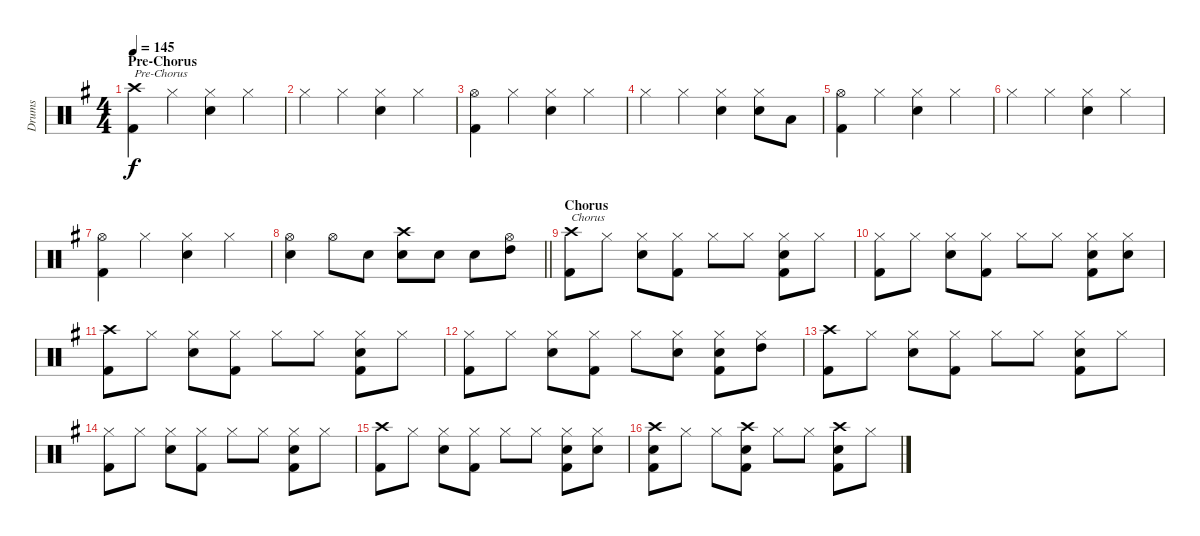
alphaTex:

\track ("Drums" "Drums") {instrument percussion}
\staff {score}
\articulation defaults
\ts (4 4)
\section ("" "Pre-Chorus")
\tempo 145
\clef neutral
\ks g
("Crash high (hit)" "Kick (hit) 2").4{txt "Pre-Chorus" dy f} "Hi-Hat (closed)".4 ("Hi-Hat (closed)" "Snare (hit) 2").4 "Hi-Hat (closed)".4 |
"Hi-Hat (closed)".4 "Hi-Hat (closed)".4 ("Hi-Hat (closed)" "Snare (hit) 2").4 "Hi-Hat (closed)".4 |
("Hi-Hat (open)" "Kick (hit) 2").4 "Hi-Hat (closed)".4 ("Hi-Hat (closed)" "Snare (hit) 2").4 "Hi-Hat (closed)".4 |
"Hi-Hat (closed)".4 "Hi-Hat (closed)".4 ("Hi-Hat (closed)" "Snare (hit) 2").4 ("Hi-Hat (closed)" "Snare (hit) 2").8 "Low Tom (hit)".8 |
("Hi-Hat (open)" "Kick (hit) 2").4 "Hi-Hat (closed)".4 ("Hi-Hat (closed)" "Snare (hit) 2").4 "Hi-Hat (closed)".4 |
"Hi-Hat (closed)".4 "Hi-Hat (closed)".4 ("Hi-Hat (closed)" "Snare (hit) 2").4 "Hi-Hat (closed)".4 |
("Hi-Hat (open)" "Kick (hit) 2").4 "Hi-Hat (closed)".4 ("Hi-Hat (closed)" "Snare (hit) 2").4 "Hi-Hat (closed)".4 |
\barLineRight lightlight
("Hi-Hat (open)" "Electric Snare (hit)").4 "Hi-Hat (open)".8 "Electric Snare (hit)".8 ("Crash high (hit)" "Electric Snare (hit)").8 "Snare (hit) 2".8 "Snare (hit) 2".8 ("Hi-Hat (open)" "High Tom (hit)").8 |
\section ("" "Chorus")
("Crash high (hit)" "Kick (hit) 2").8{txt "Chorus"} "Hi-Hat (closed)".8 ("Hi-Hat (closed)" "Electric Snare (hit)").8 ("Hi-Hat (closed)" "Kick (hit) 2").8 "Hi-Hat (closed)".8 "Hi-Hat (closed)".8 ("Hi-Hat (closed)" "Electric Snare (hit)" "Kick (hit) 2").8 "Hi-Hat (closed)".8 |
("Hi-Hat (closed)" "Kick (hit) 2").8 "Hi-Hat (closed)".8 ("Hi-Hat (closed)" "Electric Snare (hit)").8 ("Hi-Hat (closed)" "Kick (hit) 2").8 "Hi-Hat (closed)".8 "Hi-Hat (closed)".8 ("Hi-Hat (closed)" "Electric Snare (hit)" "Kick (hit) 2").8 ("Hi-Hat (closed)" "Electric Snare (hit)").8 |
("Crash high (hit)" "Kick (hit) 2").8 "Hi-Hat (closed)".8 ("Hi-Hat (closed)" "Electric Snare (hit)").8 ("Hi-Hat (closed)" "Kick (hit) 2").8 "Hi-Hat (closed)".8 "Hi-Hat (closed)".8 ("Hi-Hat (closed)" "Electric Snare (hit)" "Kick (hit) 2").8 "Hi-Hat (closed)".8 |
("Hi-Hat (closed)" "Kick (hit) 2").8 "Hi-Hat (closed)".8 ("Hi-Hat (closed)" "Electric Snare (hit)").8 ("Hi-Hat (closed)" "Kick (hit) 2").8 "Hi-Hat (closed)".8 ("Hi-Hat (closed)" "Electric Snare (hit)").8 ("Hi-Hat (closed)" "Electric Snare (hit)" "Kick (hit) 2").8 ("Hi-Hat (closed)" "High Tom (hit)").8 |
("Crash high (hit)" "Kick (hit) 2").8 "Hi-Hat (closed)".8 ("Hi-Hat (closed)" "Electric Snare (hit)").8 ("Hi-Hat (closed)" "Kick (hit) 2").8 "Hi-Hat (closed)".8 "Hi-Hat (closed)".8 ("Hi-Hat (closed)" "Electric Snare (hit)" "Kick (hit) 2").8 "Hi-Hat (closed)".8 |
("Hi-Hat (closed)" "Kick (hit) 2").8 "Hi-Hat (closed)".8 ("Hi-Hat (closed)" "Electric Snare (hit)").8 ("Hi-Hat (closed)" "Kick (hit) 2").8 "Hi-Hat (closed)".8 "Hi-Hat (closed)".8 ("Hi-Hat (closed)" "Electric Snare (hit)" "Kick (hit) 2").8 "Hi-Hat (closed)".8 |
("Crash high (hit)" "Kick (hit) 2").8 "Hi-Hat (closed)".8 ("Hi-Hat (closed)" "Electric Snare (hit)").8 ("Hi-Hat (closed)" "Kick (hit) 2").8 "Hi-Hat (closed)".8 "Hi-Hat (closed)".8 ("Hi-Hat (closed)" "Electric Snare (hit)" "Kick (hit) 2").8 ("Hi-Hat (closed)" "Electric Snare (hit)").8 |
("Crash high (hit)" "Electric Snare (hit)" "Kick (hit) 2").8 "Hi-Hat (closed)".8 "Hi-Hat (closed)".8 ("Crash high (hit)" "Electric Snare (hit)" "Kick (hit) 2").8 "Hi-Hat (closed)".8 "Hi-Hat (closed)".8 ("Crash high (hit)" "Electric Snare (hit)" "Kick (hit) 2").8 "Hi-Hat (closed)".8
